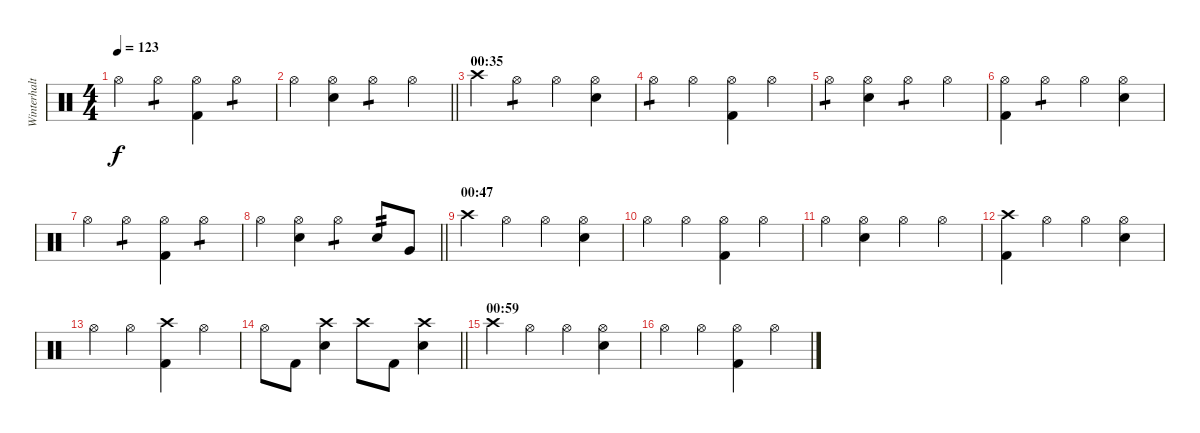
\track ("Winterhalten" "Winterhalt") {instrument percussion}
\staff {score}
\articulation defaults
\ts (4 4)
\tempo 123
\clef neutral
\ks c "Hi-Hat (open)".4{dy f} "Hi-Hat (open)".4{tp 1}
("Hi-Hat (open)" "Kick (hit) 2").4 "Hi-Hat (open)".4{tp 1} |
\barLineRight lightlight "Hi-Hat (open)".4
("Hi-Hat (open)" "Snare (hit) 2").4 "Hi-Hat (open)".4{tp 1} "Hi-Hat (open)".4 |
\section ("" "00:35")
"Crash high (hit)".4 "Hi-Hat (open)".4{tp 1} "Hi-Hat (open)".4 ("Hi-Hat (open)" "Snare (hit) 2").4 |
"Hi-Hat (open)".4{tp 1} "Hi-Hat (open)".4 ("Hi-Hat (open)" "Kick (hit) 2").4 "Hi-Hat (open)".4 |
"Hi-Hat (open)".4{tp 1} ("Hi-Hat (open)" "Snare (hit) 2").4 "Hi-Hat (open)".4{tp 1} "Hi-Hat (open)".4 |
("Hi-Hat (open)" "Kick (hit) 2").4 "Hi-Hat (open)".4{tp 1} "Hi-Hat (open)".4 ("Hi-Hat (open)" "Snare (hit) 2").4 |
"Hi-Hat (open)".4 "Hi-Hat (open)".4{tp 1} ("Hi-Hat (open)" "Kick (hit) 2").4 "Hi-Hat (open)".4{tp 1} |
\barLineRight lightlight "Hi-Hat (open)".4
("Hi-Hat (open)" "Snare (hit) 2").4 "Hi-Hat (open)".4{tp 1} "Snare (hit) 2".8{tp 2} "Very Low Tom (hit)".8 |
\section ("" "00:47")
"Crash high (hit)".4 "Hi-Hat (open)".4 "Hi-Hat (open)".4 ("Hi-Hat (open)" "Snare (hit) 2").4 |
"Hi-Hat (open)".4 "Hi-Hat (open)".4 ("Hi-Hat (open)" "Kick (hit) 2").4 "Hi-Hat (open)".4 |
"Hi-Hat (open)".4 ("Hi-Hat (open)" "Snare (hit) 2").4 "Hi-Hat (open)".4 "Hi-Hat (open)".4 |
("Crash high (hit)" "Kick (hit) 2").4 "Hi-Hat (open)".4 "Hi-Hat (open)".4 ("Hi-Hat (open)" "Snare (hit) 2").4 |
"Hi-Hat (open)".4 "Hi-Hat (open)".4 ("Crash high (hit)" "Kick (hit) 2").4 "Hi-Hat (open)".4 |
\barLineRight lightlight "Hi-Hat (open)".8 "Kick (hit) 2".8
("Crash high (hit)" "Snare (hit) 2").4 "Crash high (hit)".8 "Kick (hit) 2".8 ("Crash high (hit)" "Snare (hit) 2").4 |
\section ("" "00:59")
"Crash high (hit)".4 "Hi-Hat (open)".4 "Hi-Hat (open)".4 ("Hi-Hat (open)" "Snare (hit) 2").4 |
"Hi-Hat (open)".4 "Hi-Hat (open)".4 ("Hi-Hat (open)" "Kick (hit) 2").4 "Hi-Hat (open)".4
